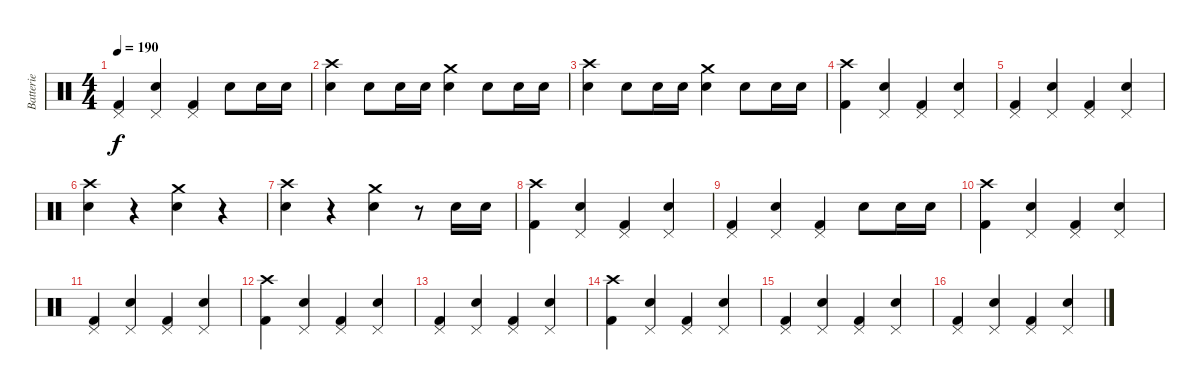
\track ("Batterie" "Batterie") {instrument percussion}
\staff {score}
\articulation defaults
\ts (4 4)
\tempo 190
\clef neutral
\ks c
("Pedal Hi-Hat (hit)" "Kick (hit) 2").4{dy f} ("Pedal Hi-Hat (hit)" "Snare (hit) 2").4 ("Pedal Hi-Hat (hit)" "Kick (hit) 2").4 "Snare (hit) 2".8 "Snare (hit) 2".16 "Snare (hit) 2".16 |
("Crash high (hit)" "Snare (hit) 2").4 "Snare (hit) 2".8 "Snare (hit) 2".16 "Snare (hit) 2".16 ("Crash medium (hit)" "Snare (hit) 2").4 "Snare (hit) 2".8 "Snare (hit) 2".16 "Snare (hit) 2".16 |
("Crash high (hit)" "Snare (hit) 2").4 "Snare (hit) 2".8 "Snare (hit) 2".16 "Snare (hit) 2".16 ("Crash medium (hit)" "Snare (hit) 2").4 "Snare (hit) 2".8 "Snare (hit) 2".16 "Snare (hit) 2".16 |
("Crash high (hit)" "Kick (hit) 2").4 ("Pedal Hi-Hat (hit)" "Snare (hit) 2").4 ("Pedal Hi-Hat (hit)" "Kick (hit) 2").4 ("Pedal Hi-Hat (hit)" "Snare (hit) 2").4 |
("Pedal Hi-Hat (hit)" "Kick (hit) 2").4 ("Pedal Hi-Hat (hit)" "Snare (hit) 2").4 ("Pedal Hi-Hat (hit)" "Kick (hit) 2").4 ("Pedal Hi-Hat (hit)" "Snare (hit) 2").4 |
("Crash high (hit)" "Snare (hit) 2").4 r.4 ("Crash medium (hit)" "Snare (hit) 2").4 r.4 |
("Crash high (hit)" "Snare (hit) 2").4 r.4 ("Crash medium (hit)" "Snare (hit) 2").4 r.8 "Snare (hit) 2".16 "Snare (hit) 2".16 |
("Crash high (hit)" "Kick (hit) 2").4 ("Pedal Hi-Hat (hit)" "Snare (hit) 2").4 ("Pedal Hi-Hat (hit)" "Kick (hit) 2").4 ("Pedal Hi-Hat (hit)" "Snare (hit) 2").4 |
("Pedal Hi-Hat (hit)" "Kick (hit) 2").4 ("Pedal Hi-Hat (hit)" "Snare (hit) 2").4 ("Pedal Hi-Hat (hit)" "Kick (hit) 2").4 "Snare (hit) 2".8 "Snare (hit) 2".16 "Snare (hit) 2".16 |
("Crash high (hit)" "Kick (hit) 2").4 ("Pedal Hi-Hat (hit)" "Snare (hit) 2").4 ("Pedal Hi-Hat (hit)" "Kick (hit) 2").4 ("Pedal Hi-Hat (hit)" "Snare (hit) 2").4 |
("Pedal Hi-Hat (hit)" "Kick (hit) 2").4 ("Pedal Hi-Hat (hit)" "Snare (hit) 2").4 ("Pedal Hi-Hat (hit)" "Kick (hit) 2").4 ("Pedal Hi-Hat (hit)" "Snare (hit) 2").4 |
("Crash high (hit)" "Kick (hit) 2").4 ("Pedal Hi-Hat (hit)" "Snare (hit) 2").4 ("Pedal Hi-Hat (hit)" "Kick (hit) 2").4 ("Pedal Hi-Hat (hit)" "Snare (hit) 2").4 |
("Pedal Hi-Hat (hit)" "Kick (hit) 2").4 ("Pedal Hi-Hat (hit)" "Snare (hit) 2").4 ("Pedal Hi-Hat (hit)" "Kick (hit) 2").4 ("Pedal Hi-Hat (hit)" "Snare (hit) 2").4 |
("Crash high (hit)" "Kick (hit) 2").4 ("Pedal Hi-Hat (hit)" "Snare (hit) 2").4 ("Pedal Hi-Hat (hit)" "Kick (hit) 2").4 ("Pedal Hi-Hat (hit)" "Snare (hit) 2").4 |
("Pedal Hi-Hat (hit)" "Kick (hit) 2").4 ("Pedal Hi-Hat (hit)" "Snare (hit) 2").4 ("Pedal Hi-Hat (hit)" "Kick (hit) 2").4 ("Pedal Hi-Hat (hit)" "Snare (hit) 2").4 |
("Pedal Hi-Hat (hit)" "Kick (hit) 2").4 ("Pedal Hi-Hat (hit)" "Snare (hit) 2").4 ("Pedal Hi-Hat (hit)" "Kick (hit) 2").4 ("Pedal Hi-Hat (hit)" "Snare (hit) 2").4
